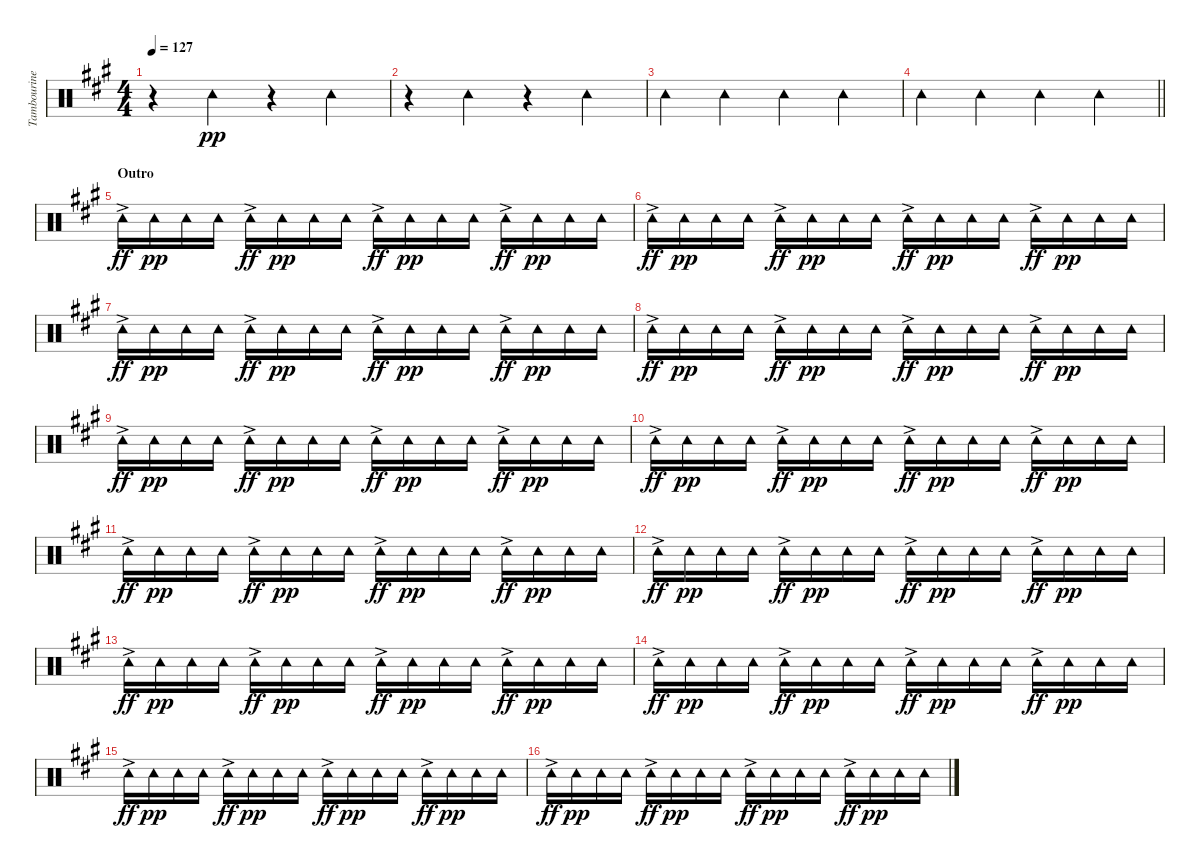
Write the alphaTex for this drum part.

\track ("Tambourine" "Tambourine") {instrument percussion}
\staff {score}
\articulation defaults
\ts (4 4)
\tempo 127
\clef neutral
\ks a
r.4{dy pp} "Tambourine (hit)".4 r.4 "Tambourine (hit)".4 |
r.4 "Tambourine (hit)".4 r.4 "Tambourine (hit)".4 |
"Tambourine (hit)".4 "Tambourine (hit)".4 "Tambourine (hit)".4 "Tambourine (hit)".4 |
\barLineRight lightlight "Tambourine (hit)".4 "Tambourine (hit)".4 "Tambourine (hit)".4 "Tambourine (hit)".4
|
\section ("" "Outro")
"Tambourine (hit)"{ac}.16{dy ff volume 7} "Tambourine (hit)".16{dy pp} "Tambourine (hit)".16 "Tambourine (hit)".16 "Tambourine (hit)"{ac}.16{dy ff} "Tambourine (hit)".16{dy pp} "Tambourine (hit)".16 "Tambourine (hit)".16 "Tambourine (hit)"{ac}.16{dy ff} "Tambourine (hit)".16{dy pp} "Tambourine (hit)".16 "Tambourine (hit)".16 "Tambourine (hit)"{ac}.16{dy ff} "Tambourine (hit)".16{dy pp} "Tambourine (hit)".16 "Tambourine (hit)".16 |
"Tambourine (hit)"{ac}.16{dy ff} "Tambourine (hit)".16{dy pp} "Tambourine (hit)".16 "Tambourine (hit)".16 "Tambourine (hit)"{ac}.16{dy ff} "Tambourine (hit)".16{dy pp} "Tambourine (hit)".16 "Tambourine (hit)".16 "Tambourine (hit)"{ac}.16{dy ff} "Tambourine (hit)".16{dy pp} "Tambourine (hit)".16 "Tambourine (hit)".16 "Tambourine (hit)"{ac}.16{dy ff} "Tambourine (hit)".16{dy pp} "Tambourine (hit)".16 "Tambourine (hit)".16 |
"Tambourine (hit)"{ac}.16{dy ff} "Tambourine (hit)".16{dy pp} "Tambourine (hit)".16 "Tambourine (hit)".16 "Tambourine (hit)"{ac}.16{dy ff} "Tambourine (hit)".16{dy pp} "Tambourine (hit)".16 "Tambourine (hit)".16 "Tambourine (hit)"{ac}.16{dy ff} "Tambourine (hit)".16{dy pp} "Tambourine (hit)".16 "Tambourine (hit)".16 "Tambourine (hit)"{ac}.16{dy ff} "Tambourine (hit)".16{dy pp} "Tambourine (hit)".16 "Tambourine (hit)".16 |
"Tambourine (hit)"{ac}.16{dy ff} "Tambourine (hit)".16{dy pp} "Tambourine (hit)".16 "Tambourine (hit)".16 "Tambourine (hit)"{ac}.16{dy ff} "Tambourine (hit)".16{dy pp} "Tambourine (hit)".16 "Tambourine (hit)".16 "Tambourine (hit)"{ac}.16{dy ff} "Tambourine (hit)".16{dy pp} "Tambourine (hit)".16 "Tambourine (hit)".16 "Tambourine (hit)"{ac}.16{dy ff} "Tambourine (hit)".16{dy pp} "Tambourine (hit)".16 "Tambourine (hit)".16 |
"Tambourine (hit)"{ac}.16{dy ff} "Tambourine (hit)".16{dy pp} "Tambourine (hit)".16 "Tambourine (hit)".16 "Tambourine (hit)"{ac}.16{dy ff} "Tambourine (hit)".16{dy pp} "Tambourine (hit)".16 "Tambourine (hit)".16 "Tambourine (hit)"{ac}.16{dy ff} "Tambourine (hit)".16{dy pp} "Tambourine (hit)".16 "Tambourine (hit)".16 "Tambourine (hit)"{ac}.16{dy ff} "Tambourine (hit)".16{dy pp} "Tambourine (hit)".16 "Tambourine (hit)".16 |
"Tambourine (hit)"{ac}.16{dy ff} "Tambourine (hit)".16{dy pp} "Tambourine (hit)".16 "Tambourine (hit)".16 "Tambourine (hit)"{ac}.16{dy ff} "Tambourine (hit)".16{dy pp} "Tambourine (hit)".16 "Tambourine (hit)".16 "Tambourine (hit)"{ac}.16{dy ff} "Tambourine (hit)".16{dy pp} "Tambourine (hit)".16 "Tambourine (hit)".16 "Tambourine (hit)"{ac}.16{dy ff} "Tambourine (hit)".16{dy pp} "Tambourine (hit)".16 "Tambourine (hit)".16 |
"Tambourine (hit)"{ac}.16{dy ff} "Tambourine (hit)".16{dy pp} "Tambourine (hit)".16 "Tambourine (hit)".16 "Tambourine (hit)"{ac}.16{dy ff} "Tambourine (hit)".16{dy pp} "Tambourine (hit)".16 "Tambourine (hit)".16 "Tambourine (hit)"{ac}.16{dy ff} "Tambourine (hit)".16{dy pp} "Tambourine (hit)".16 "Tambourine (hit)".16 "Tambourine (hit)"{ac}.16{dy ff} "Tambourine (hit)".16{dy pp} "Tambourine (hit)".16 "Tambourine (hit)".16 |
"Tambourine (hit)"{ac}.16{dy ff} "Tambourine (hit)".16{dy pp} "Tambourine (hit)".16 "Tambourine (hit)".16 "Tambourine (hit)"{ac}.16{dy ff} "Tambourine (hit)".16{dy pp} "Tambourine (hit)".16 "Tambourine (hit)".16 "Tambourine (hit)"{ac}.16{dy ff} "Tambourine (hit)".16{dy pp} "Tambourine (hit)".16 "Tambourine (hit)".16 "Tambourine (hit)"{ac}.16{dy ff} "Tambourine (hit)".16{dy pp} "Tambourine (hit)".16 "Tambourine (hit)".16 |
"Tambourine (hit)"{ac}.16{dy ff} "Tambourine (hit)".16{dy pp} "Tambourine (hit)".16 "Tambourine (hit)".16 "Tambourine (hit)"{ac}.16{dy ff} "Tambourine (hit)".16{dy pp} "Tambourine (hit)".16 "Tambourine (hit)".16 "Tambourine (hit)"{ac}.16{dy ff} "Tambourine (hit)".16{dy pp} "Tambourine (hit)".16 "Tambourine (hit)".16 "Tambourine (hit)"{ac}.16{dy ff} "Tambourine (hit)".16{dy pp} "Tambourine (hit)".16 "Tambourine (hit)".16 |
"Tambourine (hit)"{ac}.16{dy ff} "Tambourine (hit)".16{dy pp} "Tambourine (hit)".16 "Tambourine (hit)".16 "Tambourine (hit)"{ac}.16{dy ff} "Tambourine (hit)".16{dy pp} "Tambourine (hit)".16 "Tambourine (hit)".16 "Tambourine (hit)"{ac}.16{dy ff} "Tambourine (hit)".16{dy pp} "Tambourine (hit)".16 "Tambourine (hit)".16 "Tambourine (hit)"{ac}.16{dy ff} "Tambourine (hit)".16{dy pp} "Tambourine (hit)".16 "Tambourine (hit)".16 |
"Tambourine (hit)"{ac}.16{dy ff} "Tambourine (hit)".16{dy pp} "Tambourine (hit)".16 "Tambourine (hit)".16 "Tambourine (hit)"{ac}.16{dy ff} "Tambourine (hit)".16{dy pp} "Tambourine (hit)".16 "Tambourine (hit)".16 "Tambourine (hit)"{ac}.16{dy ff} "Tambourine (hit)".16{dy pp} "Tambourine (hit)".16 "Tambourine (hit)".16 "Tambourine (hit)"{ac}.16{dy ff} "Tambourine (hit)".16{dy pp} "Tambourine (hit)".16 "Tambourine (hit)".16 |
"Tambourine (hit)"{ac}.16{dy ff} "Tambourine (hit)".16{dy pp} "Tambourine (hit)".16 "Tambourine (hit)".16 "Tambourine (hit)"{ac}.16{dy ff} "Tambourine (hit)".16{dy pp} "Tambourine (hit)".16 "Tambourine (hit)".16 "Tambourine (hit)"{ac}.16{dy ff} "Tambourine (hit)".16{dy pp} "Tambourine (hit)".16 "Tambourine (hit)".16 "Tambourine (hit)"{ac}.16{dy ff} "Tambourine (hit)".16{dy pp} "Tambourine (hit)".16 "Tambourine (hit)".16
